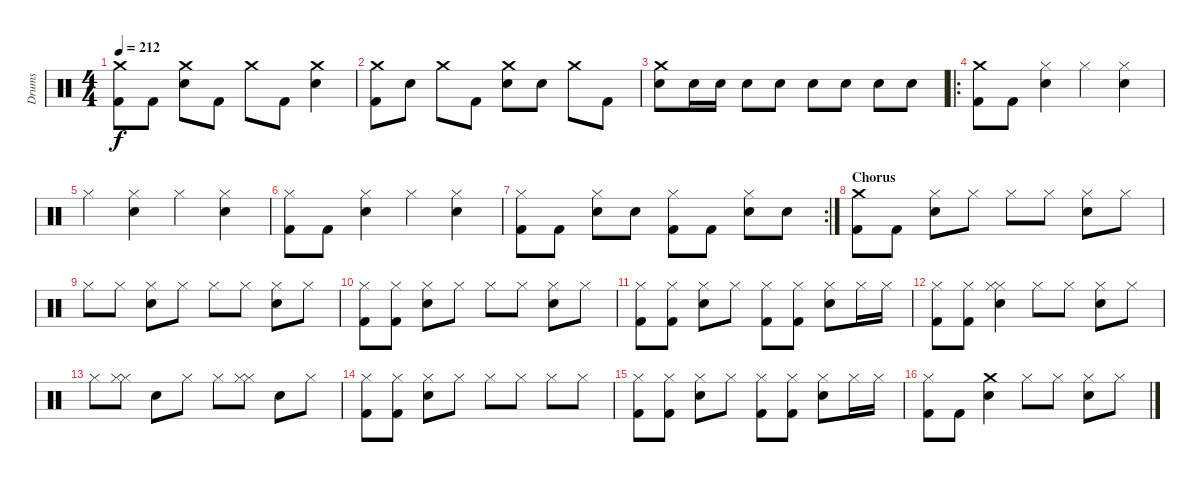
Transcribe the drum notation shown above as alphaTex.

\track ("Drums" "Drums") {instrument percussion}
\staff {score}
\articulation defaults
\ts (4 4)
\tempo 212
\clef neutral
\ks c
("Crash medium (hit)" "Kick (hit) 2").8{dy f} "Kick (hit) 2".8 ("Crash medium (hit)" "Electric Snare (hit)").8 "Kick (hit) 2".8 "Crash medium (hit)".8 "Kick (hit) 2".8 ("Crash medium (hit)" "Electric Snare (hit)").4 |
("Crash medium (hit)" "Kick (hit) 2").8 "Electric Snare (hit)".8 "Crash medium (hit)".8 "Kick (hit) 2".8 ("Crash medium (hit)" "Electric Snare (hit)").8 "Electric Snare (hit)".8 "Crash medium (hit)".8 "Kick (hit) 2".8 |
("Crash medium (hit)" "Electric Snare (hit)").8 "Electric Snare (hit)".16 "Electric Snare (hit)".16 "Electric Snare (hit)".8 "Electric Snare (hit)".8 "Electric Snare (hit)".8 "Electric Snare (hit)".8 "Electric Snare (hit)".8 "Electric Snare (hit)".8 |
\ro
("Crash medium (hit)" "Kick (hit) 2").8 "Kick (hit) 2".8 ("Hi-Hat (closed)" "Electric Snare (hit)").4 "Hi-Hat (closed)".4 ("Hi-Hat (closed)" "Electric Snare (hit)").4 |
"Hi-Hat (closed)".4 ("Hi-Hat (closed)" "Electric Snare (hit)").4 "Hi-Hat (closed)".4 ("Hi-Hat (closed)" "Electric Snare (hit)").4 |
("Hi-Hat (closed)" "Kick (hit) 2").8 "Kick (hit) 2".8 ("Hi-Hat (closed)" "Electric Snare (hit)").4 "Hi-Hat (closed)".4 ("Hi-Hat (closed)" "Electric Snare (hit)").4 |
\rc 2
("Hi-Hat (closed)" "Kick (hit) 2").8 "Kick (hit) 2".8 ("Hi-Hat (closed)" "Electric Snare (hit)").8 "Electric Snare (hit)".8 ("Hi-Hat (closed)" "Kick (hit) 2").8 "Kick (hit) 2".8 ("Hi-Hat (closed)" "Electric Snare (hit)").8 "Electric Snare (hit)".8 |
\section ("" "Chorus")
("Crash medium (hit)" "Kick (hit) 2").8 "Kick (hit) 2".8 ("Hi-Hat (closed)" "Electric Snare (hit)").8 "Hi-Hat (closed)".8 "Hi-Hat (closed)".8 "Hi-Hat (closed)".8 ("Hi-Hat (closed)" "Electric Snare (hit)").8 "Hi-Hat (closed)".8 |
"Hi-Hat (closed)".8 "Hi-Hat (closed)".8 ("Hi-Hat (closed)" "Electric Snare (hit)").8 "Hi-Hat (closed)".8 "Hi-Hat (closed)".8 "Hi-Hat (closed)".8 ("Hi-Hat (closed)" "Electric Snare (hit)").8 "Hi-Hat (closed)".8 |
("Hi-Hat (closed)" "Kick (hit) 2").8 ("Hi-Hat (closed)" "Kick (hit) 2").8 ("Hi-Hat (closed)" "Electric Snare (hit)").8 "Hi-Hat (closed)".8 "Hi-Hat (closed)".8 "Hi-Hat (closed)".8 ("Hi-Hat (closed)" "Electric Snare (hit)").8 "Hi-Hat (closed)".8 |
("Hi-Hat (closed)" "Kick (hit) 2").8 ("Hi-Hat (closed)" "Kick (hit) 2").8 ("Hi-Hat (closed)" "Electric Snare (hit)").8 "Hi-Hat (closed)".8 ("Hi-Hat (closed)" "Kick (hit) 2").8 ("Hi-Hat (closed)" "Kick (hit) 2").8 ("Hi-Hat (closed)" "Electric Snare (hit)").8 "Hi-Hat (closed)".16 "Hi-Hat (closed)".16 |
("Hi-Hat (closed)" "Kick (hit) 2").8 ("Hi-Hat (closed)" "Kick (hit) 2").8 ("Hi-Hat (closed)" "Hi-Hat (closed)" "Electric Snare (hit)").4 "Hi-Hat (closed)".8 "Hi-Hat (closed)".8 ("Hi-Hat (closed)" "Electric Snare (hit)").8 "Hi-Hat (closed)".8 |
"Hi-Hat (closed)".8 ("Hi-Hat (closed)" "Hi-Hat (closed)").8 "Electric Snare (hit)".8 "Hi-Hat (closed)".8 "Hi-Hat (closed)".8 ("Hi-Hat (closed)" "Hi-Hat (closed)").8 "Electric Snare (hit)".8 "Hi-Hat (closed)".8 |
("Hi-Hat (closed)" "Kick (hit) 2").8 ("Hi-Hat (closed)" "Kick (hit) 2").8 ("Hi-Hat (closed)" "Electric Snare (hit)").8 "Hi-Hat (closed)".8 "Hi-Hat (closed)".8 "Hi-Hat (closed)".8 "Hi-Hat (closed)".8 "Hi-Hat (closed)".8 |
("Hi-Hat (closed)" "Kick (hit) 2").8 ("Hi-Hat (closed)" "Kick (hit) 2").8 ("Hi-Hat (closed)" "Electric Snare (hit)").8 "Hi-Hat (closed)".8 ("Hi-Hat (closed)" "Kick (hit) 2").8 ("Hi-Hat (closed)" "Kick (hit) 2").8 ("Hi-Hat (closed)" "Electric Snare (hit)").8 "Hi-Hat (closed)".16 "Hi-Hat (closed)".16 |
("Hi-Hat (closed)" "Kick (hit) 2").8 "Kick (hit) 2".8 ("Crash medium (hit)" "Electric Snare (hit)").4 "Hi-Hat (closed)".8 "Hi-Hat (closed)".8 ("Hi-Hat (closed)" "Electric Snare (hit)").8 "Hi-Hat (closed)".8
